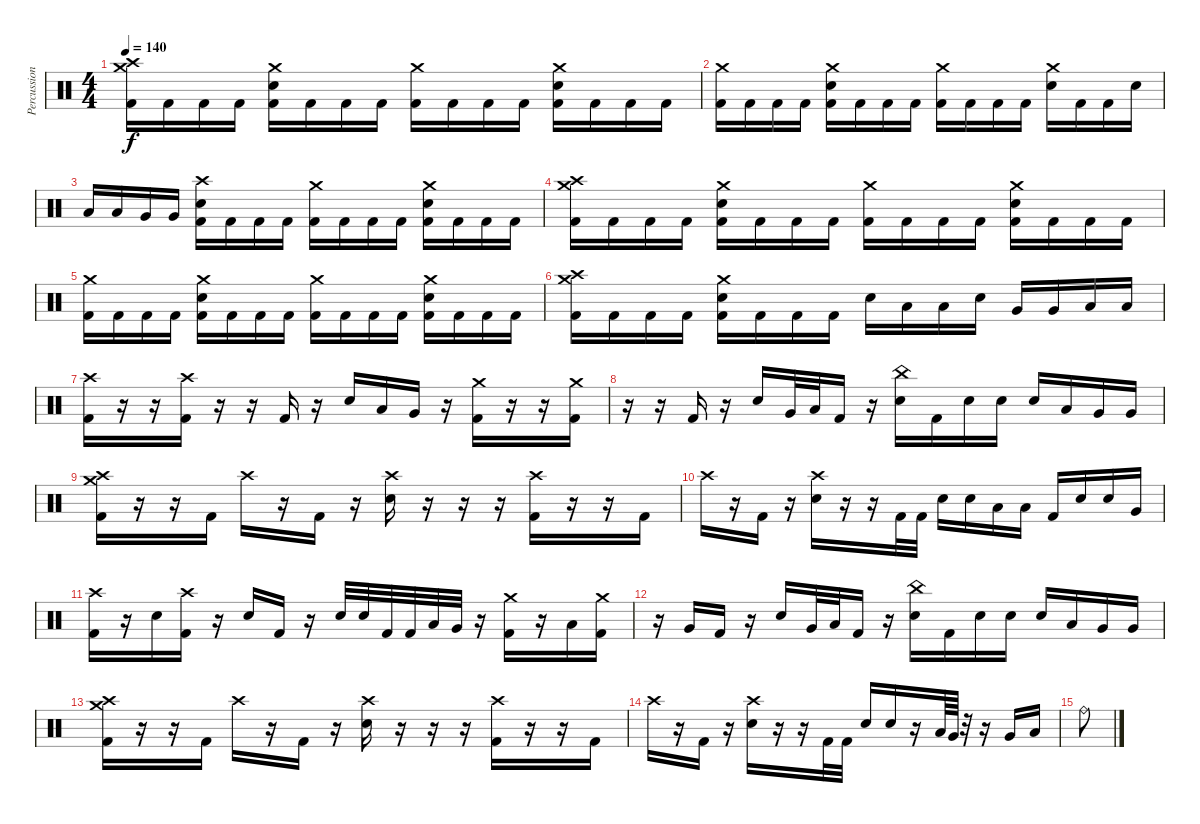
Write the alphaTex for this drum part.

\track ("Percussioni" "Percussion") {mute instrument percussion}
\staff {score}
\articulation defaults
\ts (4 4)
\tempo 140
\clef neutral
\ks c
("Crash high (hit)" "Crash medium (hit)" "Kick (hit) 2").16{dy f} "Kick (hit) 2".16 "Kick (hit) 2".16 "Kick (hit) 2".16 ("Crash medium (hit)" "Snare (hit) 2" "Kick (hit) 2").16 "Kick (hit) 2".16 "Kick (hit) 2".16 "Kick (hit) 2".16 ("Crash medium (hit)" "Kick (hit) 2").16 "Kick (hit) 2".16 "Kick (hit) 2".16 "Kick (hit) 2".16 ("Crash medium (hit)" "Snare (hit) 2" "Kick (hit) 2").16 "Kick (hit) 2".16 "Kick (hit) 2".16 "Kick (hit) 2".16 |
("Crash medium (hit)" "Kick (hit) 2").16 "Kick (hit) 2".16 "Kick (hit) 2".16 "Kick (hit) 2".16 ("Crash medium (hit)" "Snare (hit) 2" "Kick (hit) 2").16 "Kick (hit) 2".16 "Kick (hit) 2".16 "Kick (hit) 2".16 ("Crash medium (hit)" "Kick (hit) 2").16 "Kick (hit) 2".16 "Kick (hit) 2".16 "Kick (hit) 2".16 ("Crash medium (hit)" "Snare (hit) 2").16 "Kick (hit) 2".16 "Kick (hit) 2".16 "Snare (hit) 2".16 |
"Low Tom (hit)".16 "Low Tom (hit)".16 "Very Low Tom (hit)".16 "Very Low Tom (hit)".16 ("Crash high (hit)" "Snare (hit) 2" "Kick (hit) 2").16 "Kick (hit) 2".16 "Kick (hit) 2".16 "Kick (hit) 2".16 ("Crash medium (hit)" "Kick (hit) 2").16 "Kick (hit) 2".16 "Kick (hit) 2".16 "Kick (hit) 2".16 ("Crash medium (hit)" "Snare (hit) 2" "Kick (hit) 2").16 "Kick (hit) 2".16 "Kick (hit) 2".16 "Kick (hit) 2".16 |
("Crash high (hit)" "Crash medium (hit)" "Kick (hit) 2").16 "Kick (hit) 2".16 "Kick (hit) 2".16 "Kick (hit) 2".16 ("Crash medium (hit)" "Snare (hit) 2" "Kick (hit) 2").16 "Kick (hit) 2".16 "Kick (hit) 2".16 "Kick (hit) 2".16 ("Crash medium (hit)" "Kick (hit) 2").16 "Kick (hit) 2".16 "Kick (hit) 2".16 "Kick (hit) 2".16 ("Crash medium (hit)" "Snare (hit) 2" "Kick (hit) 2").16 "Kick (hit) 2".16 "Kick (hit) 2".16 "Kick (hit) 2".16 |
("Crash medium (hit)" "Kick (hit) 2").16 "Kick (hit) 2".16 "Kick (hit) 2".16 "Kick (hit) 2".16 ("Crash medium (hit)" "Snare (hit) 2" "Kick (hit) 2").16 "Kick (hit) 2".16 "Kick (hit) 2".16 "Kick (hit) 2".16 ("Crash medium (hit)" "Kick (hit) 2").16 "Kick (hit) 2".16 "Kick (hit) 2".16 "Kick (hit) 2".16 ("Crash medium (hit)" "Snare (hit) 2" "Kick (hit) 2").16 "Kick (hit) 2".16 "Kick (hit) 2".16 "Kick (hit) 2".16 |
("Crash high (hit)" "Crash medium (hit)" "Kick (hit) 2").16 "Kick (hit) 2".16 "Kick (hit) 2".16 "Kick (hit) 2".16 ("Crash medium (hit)" "Snare (hit) 2" "Kick (hit) 2").16 "Kick (hit) 2".16 "Kick (hit) 2".16 "Kick (hit) 2".16 "Snare (hit) 2".16 "Low Tom (hit)".16 "Low Tom (hit)".16 "Snare (hit) 2".16 "Very Low Tom (hit)".16 "Very Low Tom (hit)".16 "Low Floor Tom (hit)".16 "Low Floor Tom (hit)".16 |
("Kick (hit) 2" "Crash high (hit)").16 r.16 r.16 ("Kick (hit) 2" "Crash high (hit)").16 r.16 r.16 "Kick (hit) 2".16 r.16 "Snare (hit) 2".16 "Low Tom (hit)".16 "Very Low Tom (hit)".16 r.16 ("Kick (hit) 2" "Crash medium (hit)").16 r.16 r.16 ("Kick (hit) 2" "Crash medium (hit)").16 |
r.16 r.16 "Kick (hit) 2".16 r.16 "Snare (hit) 2".16 "Very Low Tom (hit)".32 "Low Floor Tom (hit)".32 "Kick (hit) 2".16 r.16 ("Snare (hit) 2" "China (hit)").16 "Kick (hit) 2".16 "Snare (hit) 2".16 "Snare (hit) 2".16 "Snare (hit) 2".16 "Low Tom (hit)".16 "Very Low Tom (hit)".16 "Very Low Tom (hit)".16 |
("Kick (hit) 2" "Crash medium (hit)" "Crash high (hit)").16 r.16 r.16 "Kick (hit) 2".16 "Crash high (hit)".16 r.16 "Kick (hit) 2".16 r.16 ("Snare (hit) 2" "Crash high (hit)").16 r.16 r.16 r.16 ("Kick (hit) 2" "Crash high (hit)").16 r.16 r.16 "Kick (hit) 2".16 |
"Crash high (hit)".16 r.16 "Kick (hit) 2".16 r.16 ("Snare (hit) 2" "Crash high (hit)").16 r.16 r.16 "Kick (hit) 2".32 "Kick (hit) 2".32 "Snare (hit) 2".16 "Snare (hit) 2".16 "Low Tom (hit)".16 "Low Tom (hit)".16 "Kick (hit) 2".16 "Snare (hit) 2".16 "Snare (hit) 2".16 "Very Low Tom (hit)".16 |
("Kick (hit) 2" "Crash high (hit)").16 r.16 "Snare (hit) 2".16 ("Kick (hit) 2" "Crash high (hit)").16 r.16 "Snare (hit) 2".16 "Kick (hit) 2".16 r.16 "Snare (hit) 2".32 "Snare (hit) 2".32 "Kick (hit) 2".32 "Kick (hit) 2".32 "Low Tom (hit)".32 "Very Low Tom (hit)".32 r.16 ("Kick (hit) 2" "Crash medium (hit)").16 r.16 "Low Tom (hit)".16 ("Kick (hit) 2" "Crash medium (hit)").16 |
r.16 "Very Low Tom (hit)".16 "Kick (hit) 2".16 r.16 "Snare (hit) 2".16 "Very Low Tom (hit)".32 "Low Floor Tom (hit)".32 "Kick (hit) 2".16 r.16 ("Snare (hit) 2" "China (hit)").16 "Kick (hit) 2".16 "Snare (hit) 2".16 "Snare (hit) 2".16 "Snare (hit) 2".16 "Low Tom (hit)".16 "Very Low Tom (hit)".16 "Very Low Tom (hit)".16 |
("Kick (hit) 2" "Crash medium (hit)" "Crash high (hit)").16 r.16 r.16 "Kick (hit) 2".16 "Crash high (hit)".16 r.16 "Kick (hit) 2".16 r.16 ("Snare (hit) 2" "Crash high (hit)").16 r.16 r.16 r.16 ("Kick (hit) 2" "Crash high (hit)").16 r.16 r.16 "Kick (hit) 2".16 |
"Crash high (hit)".16 r.16 "Kick (hit) 2".16 r.16 ("Snare (hit) 2" "Crash high (hit)").16 r.16 r.16 "Kick (hit) 2".32 "Kick (hit) 2".32 "Snare (hit) 2".16 "Snare (hit) 2".16 r.16 "Low Tom (hit)".64 "Very Low Tom (hit)".64 r.32 r.16 "Very Low Tom (hit)".16 "Low Floor Tom (hit)".16 |
"Ride (bell)".8
